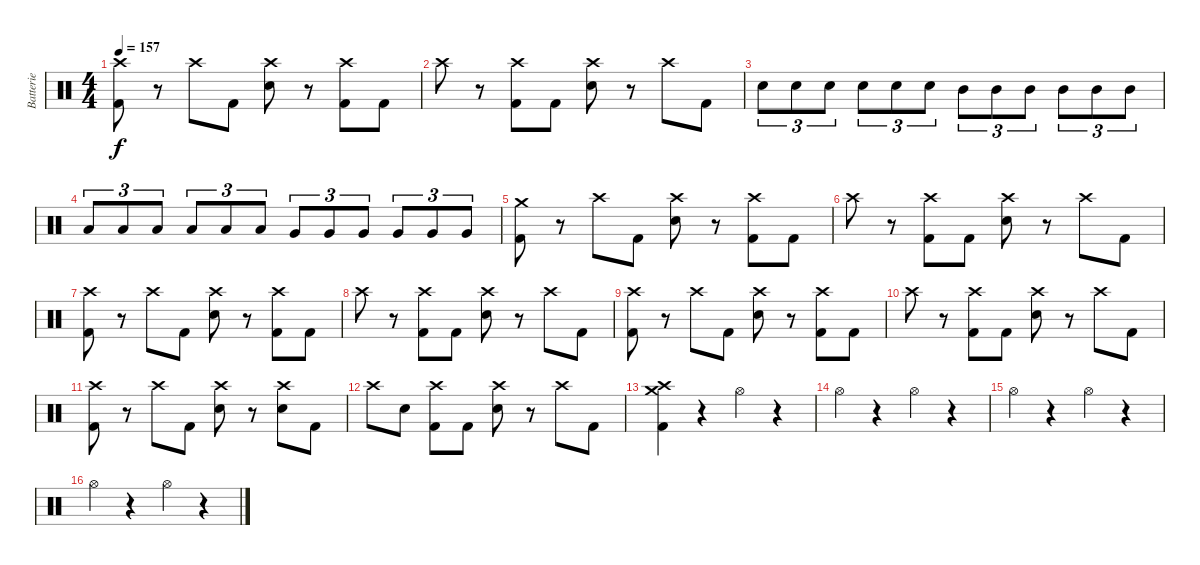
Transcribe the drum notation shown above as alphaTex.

\track ("Batterie" "Batterie") {instrument percussion}
\staff {score}
\articulation defaults
\ts (4 4)
\tempo 157
\clef neutral
\ks c
("Kick (hit) 2" "Crash high (hit)").8{dy f} r.8 "Crash high (hit)".8 "Kick (hit) 2".8 ("Electric Snare (hit)" "Crash high (hit)").8 r.8 ("Kick (hit) 2" "Crash high (hit)").8 "Kick (hit) 2".8 |
"Crash high (hit)".8 r.8 ("Kick (hit) 2" "Crash high (hit)").8 "Kick (hit) 2".8 ("Electric Snare (hit)" "Crash high (hit)").8 r.8 "Crash high (hit)".8 "Kick (hit) 2".8 |
"Electric Snare (hit)".8{tu (3 2)} "Electric Snare (hit)".8{tu (3 2)} "Electric Snare (hit)".8{tu (3 2)} "Electric Snare (hit)".8{tu (3 2)} "Electric Snare (hit)".8{tu (3 2)} "Electric Snare (hit)".8{tu (3 2)} "Mid Tom (hit)".8{tu (3 2)} "Mid Tom (hit)".8{tu (3 2)} "Mid Tom (hit)".8{tu (3 2)} "Mid Tom (hit)".8{tu (3 2)} "Mid Tom (hit)".8{tu (3 2)} "Mid Tom (hit)".8{tu (3 2)} |
"Low Tom (hit)".8{tu (3 2)} "Low Tom (hit)".8{tu (3 2)} "Low Tom (hit)".8{tu (3 2)} "Low Tom (hit)".8{tu (3 2)} "Low Tom (hit)".8{tu (3 2)} "Low Tom (hit)".8{tu (3 2)} "Very Low Tom (hit)".8{tu (3 2)} "Very Low Tom (hit)".8{tu (3 2)} "Very Low Tom (hit)".8{tu (3 2)} "Very Low Tom (hit)".8{tu (3 2)} "Very Low Tom (hit)".8{tu (3 2)} "Very Low Tom (hit)".8{tu (3 2)} |
("Kick (hit) 2" "Crash medium (hit)").8 r.8 "Crash high (hit)".8 "Kick (hit) 2".8 ("Electric Snare (hit)" "Crash high (hit)").8 r.8 ("Kick (hit) 2" "Crash high (hit)").8 "Kick (hit) 2".8 |
"Crash high (hit)".8 r.8 ("Kick (hit) 2" "Crash high (hit)").8 "Kick (hit) 2".8 ("Electric Snare (hit)" "Crash high (hit)").8 r.8 "Crash high (hit)".8 "Kick (hit) 2".8 |
("Kick (hit) 2" "Crash high (hit)").8 r.8 "Crash high (hit)".8 "Kick (hit) 2".8 ("Electric Snare (hit)" "Crash high (hit)").8 r.8 ("Kick (hit) 2" "Crash high (hit)").8 "Kick (hit) 2".8 |
"Crash high (hit)".8 r.8 ("Kick (hit) 2" "Crash high (hit)").8 "Kick (hit) 2".8 ("Electric Snare (hit)" "Crash high (hit)").8 r.8 "Crash high (hit)".8 "Kick (hit) 2".8 |
("Kick (hit) 2" "Crash high (hit)").8 r.8 "Crash high (hit)".8 "Kick (hit) 2".8 ("Electric Snare (hit)" "Crash high (hit)").8 r.8 ("Kick (hit) 2" "Crash high (hit)").8 "Kick (hit) 2".8 |
"Crash high (hit)".8 r.8 ("Kick (hit) 2" "Crash high (hit)").8 "Kick (hit) 2".8 ("Electric Snare (hit)" "Crash high (hit)").8 r.8 "Crash high (hit)".8 "Kick (hit) 2".8 |
("Kick (hit) 2" "Crash high (hit)").8 r.8 "Crash high (hit)".8 "Kick (hit) 2".8 ("Electric Snare (hit)" "Crash high (hit)").8 r.8 ("Electric Snare (hit)" "Crash high (hit)").8 "Kick (hit) 2".8 |
"Crash high (hit)".8 "Electric Snare (hit)".8 ("Kick (hit) 2" "Crash high (hit)").8 "Kick (hit) 2".8 ("Electric Snare (hit)" "Crash high (hit)").8 r.8 "Crash high (hit)".8 "Kick (hit) 2".8 |
("Kick (hit) 2" "Crash medium (hit)" "Crash high (hit)").4 r.4 "Hi-Hat (open)".4 r.4 |
"Hi-Hat (open)".4 r.4 "Hi-Hat (open)".4 r.4 |
"Hi-Hat (open)".4 r.4 "Hi-Hat (open)".4 r.4 |
"Hi-Hat (open)".4 r.4 "Hi-Hat (open)".4 r.4
